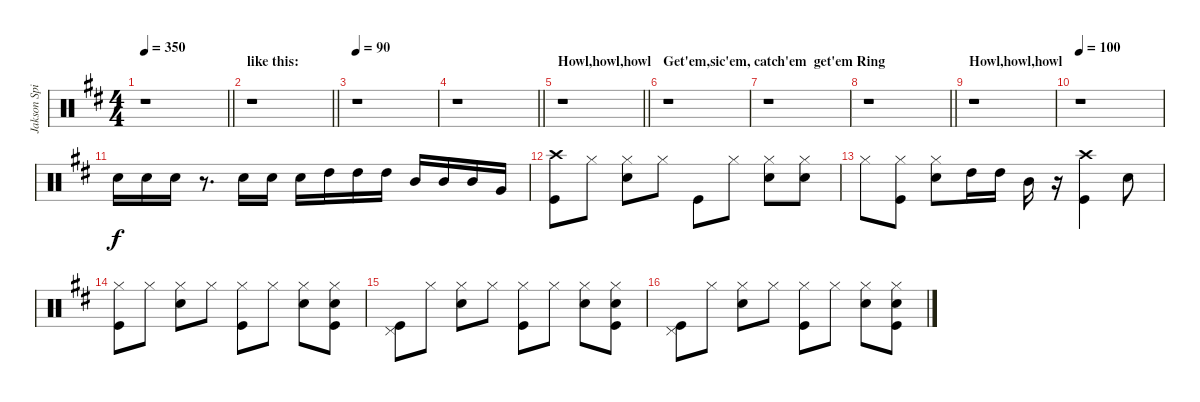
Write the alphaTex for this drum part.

\track ("Jakson Spires Drums" "Jakson Spi") {instrument percussion}
\staff {score}
\articulation defaults
\ts (4 4)
\tempo 350
\clef neutral
\barLineRight lightlight
\ks d
r.1{dy f} |
\section ("" "like this:")
\barLineRight lightlight
r.1 |
\section ("" "")
\tempo 90
r.1 |
\barLineRight lightlight
r.1 |
\section ("" "Howl,howl,howl")
\barLineRight lightlight
r.1 |
\section ("" "Get'em,sic'em, catch'em  get'em Ring")
r.1 |
r.1 |
\barLineRight lightlight
r.1 |
\section ("" "Howl,howl,howl")
r.1 |
\tempo 100
r.1 |
"Snare (hit) 2".16 "Snare (hit) 2".16 "Snare (hit) 2".16 r.8{d} "Snare (hit) 2".16 "Snare (hit) 2".16 "Snare (hit) 2".16 "High Tom (hit)".16 "High Tom (hit)".16 "High Tom (hit)".16 "Mid Tom (hit)".16 "Mid Tom (hit)".16 "Mid Tom (hit)".16 "Very Low Tom (hit)".16 |
("Crash high (hit)" "Kick (hit)").8 "Hi-Hat (closed)".8 ("Hi-Hat (closed)" "Snare (hit) 2").8 "Hi-Hat (closed)".8 "Kick (hit)".8 "Hi-Hat (closed)".8 ("Hi-Hat (closed)" "Snare (hit) 2").8 ("Hi-Hat (closed)" "Snare (hit) 2").8 |
"Hi-Hat (closed)".8 ("Hi-Hat (closed)" "Kick (hit)").8 ("Hi-Hat (closed)" "Snare (hit) 2").8 "High Tom (hit)".16 "High Tom (hit)".16 "Mid Tom (hit)".16 r.16 ("Crash high (hit)" "Kick (hit)").4 "Snare (hit) 2".8 |
("Hi-Hat (closed)" "Kick (hit)").8 "Hi-Hat (closed)".8 ("Hi-Hat (closed)" "Snare (hit) 2").8 "Hi-Hat (closed)".8 ("Hi-Hat (closed)" "Kick (hit)").8 "Hi-Hat (closed)".8 ("Hi-Hat (closed)" "Snare (hit) 2").8 ("Hi-Hat (closed)" "Snare (hit) 2" "Kick (hit)").8 |
("Pedal Hi-Hat (hit)" "Kick (hit)").8 "Hi-Hat (closed)".8 ("Hi-Hat (closed)" "Snare (hit) 2").8 "Hi-Hat (closed)".8 ("Hi-Hat (closed)" "Kick (hit)").8 "Hi-Hat (closed)".8 ("Hi-Hat (closed)" "Snare (hit) 2").8 ("Hi-Hat (closed)" "Snare (hit) 2" "Kick (hit)").8 |
("Pedal Hi-Hat (hit)" "Kick (hit)").8 "Hi-Hat (closed)".8 ("Hi-Hat (closed)" "Snare (hit) 2").8 "Hi-Hat (closed)".8 ("Hi-Hat (closed)" "Kick (hit)").8 "Hi-Hat (closed)".8 ("Hi-Hat (closed)" "Snare (hit) 2").8 ("Hi-Hat (closed)" "Snare (hit) 2" "Kick (hit)").8
